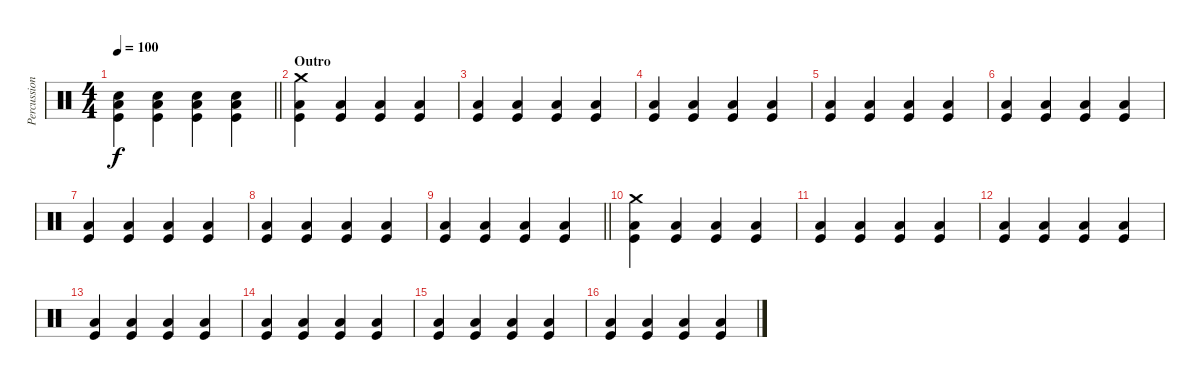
\track ("Percussion" "Percussion") {instrument percussion}
\staff {score}
\articulation defaults
\ts (4 4)
\tempo 100
\clef neutral
\barLineRight lightlight
\ks c
("Electric Snare (hit)" "Kick (hit)" "Low Floor Tom (hit)").4{dy f} ("Electric Snare (hit)" "Kick (hit)" "Low Floor Tom (hit)").4 ("Electric Snare (hit)" "Kick (hit)" "Low Floor Tom (hit)").4 ("Electric Snare (hit)" "Kick (hit)" "Low Floor Tom (hit)").4 |
\section ("" "Outro")
("Kick (hit)" "Low Floor Tom (hit)" "Crash medium (hit)").4 ("Kick (hit)" "Low Floor Tom (hit)").4 ("Kick (hit)" "Low Floor Tom (hit)").4 ("Kick (hit)" "Low Floor Tom (hit)").4 |
("Kick (hit)" "Low Floor Tom (hit)").4 ("Kick (hit)" "Low Floor Tom (hit)").4 ("Kick (hit)" "Low Floor Tom (hit)").4 ("Kick (hit)" "Low Floor Tom (hit)").4 |
("Kick (hit)" "Low Floor Tom (hit)").4 ("Kick (hit)" "Low Floor Tom (hit)").4 ("Kick (hit)" "Low Floor Tom (hit)").4 ("Kick (hit)" "Low Floor Tom (hit)").4 |
("Kick (hit)" "Low Floor Tom (hit)").4 ("Kick (hit)" "Low Floor Tom (hit)").4 ("Kick (hit)" "Low Floor Tom (hit)").4 ("Kick (hit)" "Low Floor Tom (hit)").4 |
("Kick (hit)" "Low Floor Tom (hit)").4 ("Kick (hit)" "Low Floor Tom (hit)").4 ("Kick (hit)" "Low Floor Tom (hit)").4 ("Kick (hit)" "Low Floor Tom (hit)").4 |
("Kick (hit)" "Low Floor Tom (hit)").4 ("Kick (hit)" "Low Floor Tom (hit)").4 ("Kick (hit)" "Low Floor Tom (hit)").4 ("Kick (hit)" "Low Floor Tom (hit)").4 |
("Kick (hit)" "Low Floor Tom (hit)").4 ("Kick (hit)" "Low Floor Tom (hit)").4 ("Kick (hit)" "Low Floor Tom (hit)").4 ("Kick (hit)" "Low Floor Tom (hit)").4 |
\barLineRight lightlight
("Kick (hit)" "Low Floor Tom (hit)").4 ("Kick (hit)" "Low Floor Tom (hit)").4 ("Kick (hit)" "Low Floor Tom (hit)").4 ("Kick (hit)" "Low Floor Tom (hit)").4 |
("Kick (hit)" "Low Floor Tom (hit)" "Crash medium (hit)").4 ("Kick (hit)" "Low Floor Tom (hit)").4 ("Kick (hit)" "Low Floor Tom (hit)").4 ("Kick (hit)" "Low Floor Tom (hit)").4 |
("Kick (hit)" "Low Floor Tom (hit)").4 ("Kick (hit)" "Low Floor Tom (hit)").4 ("Kick (hit)" "Low Floor Tom (hit)").4 ("Kick (hit)" "Low Floor Tom (hit)").4 |
("Kick (hit)" "Low Floor Tom (hit)").4 ("Kick (hit)" "Low Floor Tom (hit)").4 ("Kick (hit)" "Low Floor Tom (hit)").4 ("Kick (hit)" "Low Floor Tom (hit)").4 |
("Kick (hit)" "Low Floor Tom (hit)").4 ("Kick (hit)" "Low Floor Tom (hit)").4 ("Kick (hit)" "Low Floor Tom (hit)").4 ("Kick (hit)" "Low Floor Tom (hit)").4 |
("Kick (hit)" "Low Floor Tom (hit)").4 ("Kick (hit)" "Low Floor Tom (hit)").4 ("Kick (hit)" "Low Floor Tom (hit)").4 ("Kick (hit)" "Low Floor Tom (hit)").4 |
("Kick (hit)" "Low Floor Tom (hit)").4 ("Kick (hit)" "Low Floor Tom (hit)").4 ("Kick (hit)" "Low Floor Tom (hit)").4 ("Kick (hit)" "Low Floor Tom (hit)").4 |
("Kick (hit)" "Low Floor Tom (hit)").4 ("Kick (hit)" "Low Floor Tom (hit)").4 ("Kick (hit)" "Low Floor Tom (hit)").4 ("Kick (hit)" "Low Floor Tom (hit)").4
